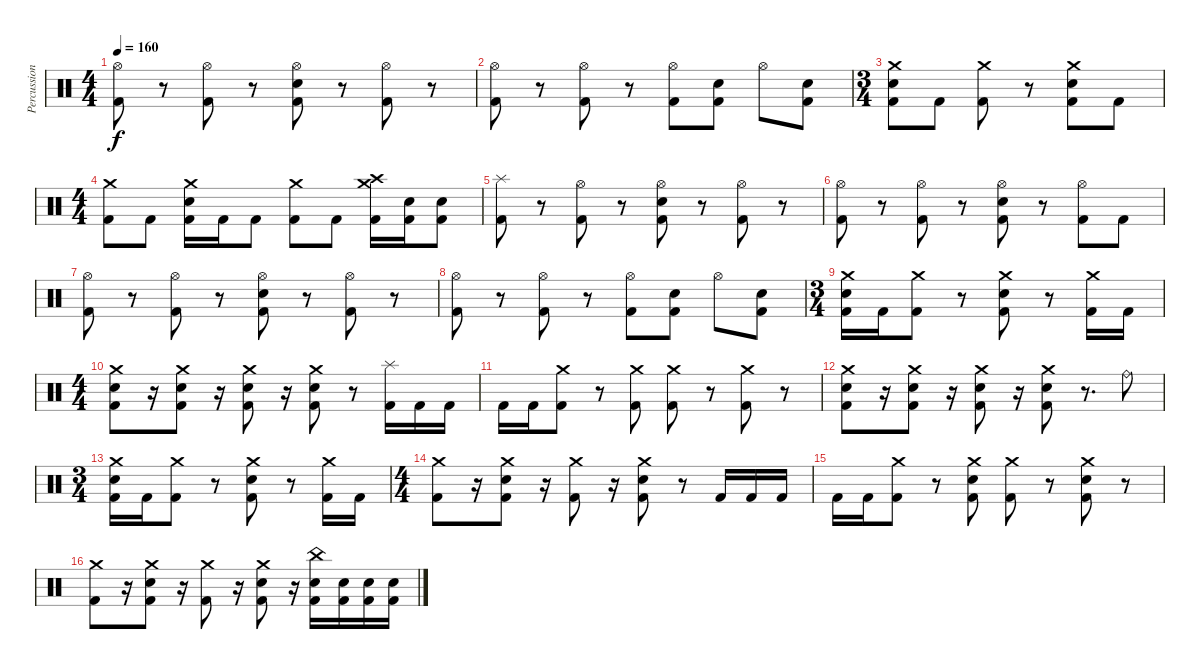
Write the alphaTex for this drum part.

\track ("Percussion" "Percussion") {instrument percussion}
\staff {score}
\articulation defaults
\ts (4 4)
\tempo 160
\clef neutral
\ks c
("Hi-Hat (open)" "Kick (hit) 2").8{dy f} r.8 ("Hi-Hat (open)" "Kick (hit) 2").8 r.8 ("Hi-Hat (open)" "Electric Snare (hit)" "Kick (hit) 2").8 r.8 ("Hi-Hat (open)" "Kick (hit) 2").8 r.8 |
("Hi-Hat (open)" "Kick (hit) 2").8 r.8 ("Hi-Hat (open)" "Kick (hit) 2").8 r.8 ("Hi-Hat (open)" "Kick (hit) 2").8 ("Electric Snare (hit)" "Kick (hit) 2").8 "Hi-Hat (open)".8 ("Electric Snare (hit)" "Kick (hit) 2").8 |
\ts (3 4)
("Crash medium (hit)" "Electric Snare (hit)" "Kick (hit) 2").8 "Kick (hit) 2".8 ("Crash medium (hit)" "Kick (hit) 2").8 r.8 ("Crash medium (hit)" "Electric Snare (hit)" "Kick (hit) 2").8 "Kick (hit) 2".8 |
\ts (4 4)
("Crash medium (hit)" "Kick (hit) 2").8 "Kick (hit) 2".8 ("Crash medium (hit)" "Electric Snare (hit)" "Kick (hit) 2").16 "Kick (hit) 2".16 "Kick (hit) 2".8 ("Crash medium (hit)" "Kick (hit) 2").8 "Kick (hit) 2".8 ("Crash medium (hit)" "Crash high (hit)" "Kick (hit) 2").16 ("Electric Snare (hit)" "Kick (hit) 2").16 ("Electric Snare (hit)" "Kick (hit) 2").8 |
("Splash (hit)" "Kick (hit) 2").8 r.8 ("Hi-Hat (open)" "Kick (hit) 2").8 r.8 ("Hi-Hat (open)" "Electric Snare (hit)" "Kick (hit) 2").8 r.8 ("Hi-Hat (open)" "Kick (hit) 2").8 r.8 |
("Hi-Hat (open)" "Kick (hit) 2").8 r.8 ("Hi-Hat (open)" "Kick (hit) 2").8 r.8 ("Hi-Hat (open)" "Electric Snare (hit)" "Kick (hit) 2").8 r.8 ("Hi-Hat (open)" "Kick (hit) 2").8 "Kick (hit) 2".8 |
("Hi-Hat (open)" "Kick (hit) 2").8 r.8 ("Hi-Hat (open)" "Kick (hit) 2").8 r.8 ("Hi-Hat (open)" "Electric Snare (hit)" "Kick (hit) 2").8 r.8 ("Hi-Hat (open)" "Kick (hit) 2").8 r.8 |
("Hi-Hat (open)" "Kick (hit) 2").8 r.8 ("Hi-Hat (open)" "Kick (hit) 2").8 r.8 ("Hi-Hat (open)" "Kick (hit) 2").8 ("Electric Snare (hit)" "Kick (hit) 2").8 "Hi-Hat (open)".8 ("Electric Snare (hit)" "Kick (hit) 2").8 |
\ts (3 4)
("Crash medium (hit)" "Electric Snare (hit)" "Kick (hit) 2").16 "Kick (hit) 2".16 ("Crash medium (hit)" "Kick (hit) 2").8 r.8 ("Crash medium (hit)" "Electric Snare (hit)" "Kick (hit) 2").8 r.8 ("Crash medium (hit)" "Kick (hit) 2").16 "Kick (hit) 2".16 |
\ts (4 4)
("Crash medium (hit)" "Electric Snare (hit)" "Kick (hit) 2").8 r.16 ("Crash medium (hit)" "Electric Snare (hit)" "Kick (hit) 2").8 r.16 ("Crash medium (hit)" "Electric Snare (hit)" "Kick (hit) 2").8 r.16 ("Crash medium (hit)" "Electric Snare (hit)" "Kick (hit) 2").8 r.8 ("Splash (hit)" "Kick (hit) 2").16 "Kick (hit) 2".16 "Kick (hit) 2".16 |
"Kick (hit) 2".16 "Kick (hit) 2".16 ("Crash medium (hit)" "Kick (hit) 2").8 r.8 ("Crash medium (hit)" "Kick (hit) 2").8 ("Crash medium (hit)" "Kick (hit) 2").8 r.8 ("Crash medium (hit)" "Kick (hit) 2").8 r.8 |
("Crash medium (hit)" "Electric Snare (hit)" "Kick (hit) 2").8 r.16 ("Crash medium (hit)" "Electric Snare (hit)" "Kick (hit) 2").8 r.16 ("Crash medium (hit)" "Electric Snare (hit)" "Kick (hit) 2").8 r.16 ("Crash medium (hit)" "Electric Snare (hit)" "Kick (hit) 2").8 r.8{d} "Ride (bell)".8 |
\ts (3 4)
("Crash medium (hit)" "Electric Snare (hit)" "Kick (hit) 2").16 "Kick (hit) 2".16 ("Crash medium (hit)" "Kick (hit) 2").8 r.8 ("Crash medium (hit)" "Electric Snare (hit)" "Kick (hit) 2").8 r.8 ("Crash medium (hit)" "Kick (hit) 2").16 "Kick (hit) 2".16 |
\ts (4 4)
("Crash medium (hit)" "Kick (hit) 2").8 r.16 ("Crash medium (hit)" "Electric Snare (hit)" "Kick (hit) 2").8 r.16 ("Crash medium (hit)" "Kick (hit) 2").8 r.16 ("Crash medium (hit)" "Electric Snare (hit)" "Kick (hit) 2").8 r.8 "Kick (hit) 2".16 "Kick (hit) 2".16 "Kick (hit) 2".16 |
"Kick (hit) 2".16 "Kick (hit) 2".16 ("Crash medium (hit)" "Kick (hit) 2").8 r.8 ("Crash medium (hit)" "Electric Snare (hit)" "Kick (hit) 2").8 ("Crash medium (hit)" "Kick (hit) 2").8 r.8 ("Crash medium (hit)" "Electric Snare (hit)" "Kick (hit) 2").8 r.8 |
("Crash medium (hit)" "Kick (hit) 2").8 r.16 ("Crash medium (hit)" "Electric Snare (hit)" "Kick (hit) 2").8 r.16 ("Crash medium (hit)" "Kick (hit) 2").8 r.16 ("Crash medium (hit)" "Electric Snare (hit)" "Kick (hit) 2").8 r.16 ("China (hit)" "Electric Snare (hit)" "Kick (hit) 2").16 ("Electric Snare (hit)" "Kick (hit) 2").16 ("Electric Snare (hit)" "Kick (hit) 2").16 ("Electric Snare (hit)" "Kick (hit) 2").16
